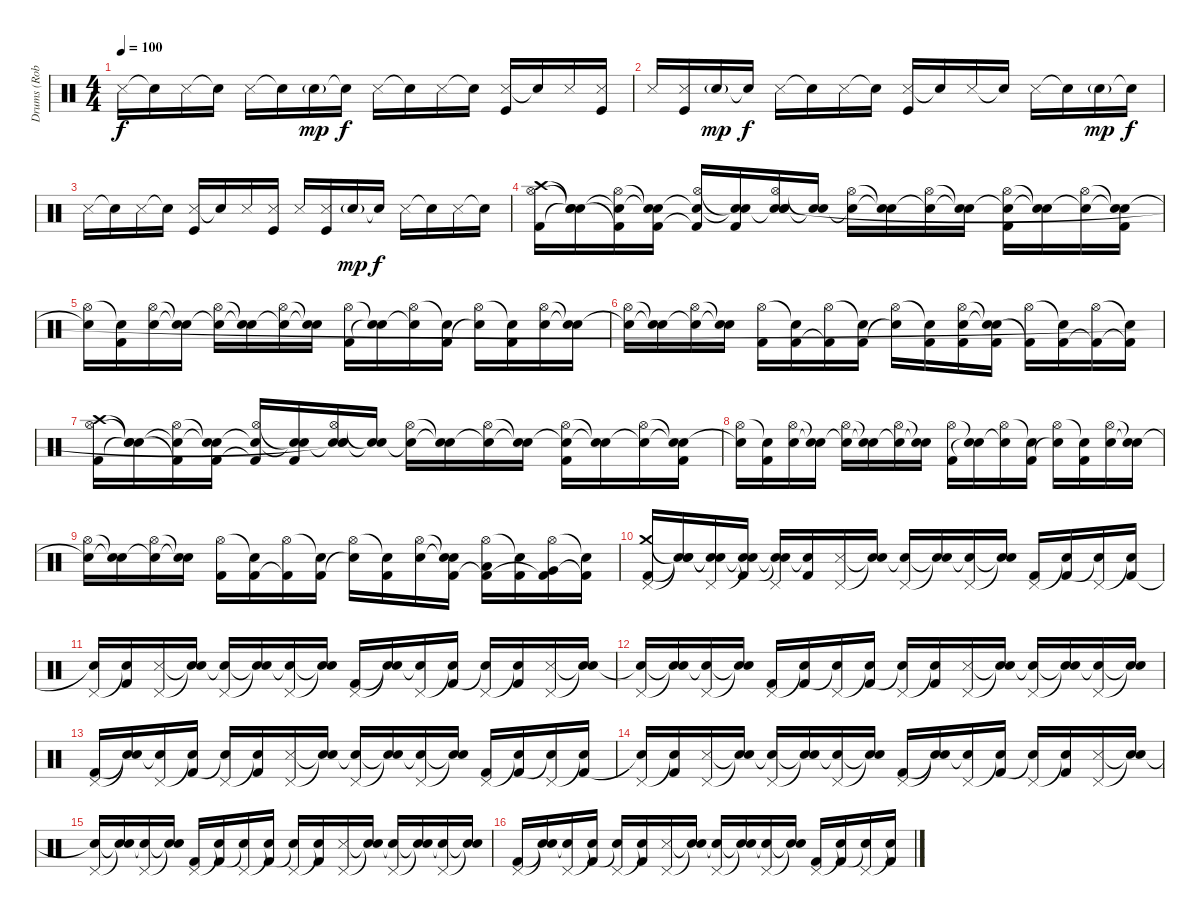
\track ("Drums (Rob Bourdon)" "Drums (Rob") {instrument percussion}
\staff {score}
\articulation defaults
\ts (4 4)
\tempo 100
\clef neutral
\ks c "Snare (side stick) 3".16{dy f volume 7} "Snare (hit)"{t}.16 "Snare (side stick) 3".16 "Snare (hit)"{t}.16 "Snare (side stick) 3".16 "Snare (hit)"{t}.16 "Metronome (bell)"{g}.16{dy mp volume 8} "Snare (hit)"{t}.16{dy f} "Snare (side stick) 3".16 "Snare (hit)"{t}.16 "Snare (side stick) 3".16 "Snare (hit)"{t}.16
("Snare (side stick) 3" "Kick (hit)").16{volume 9} "Snare (hit)"{t}.16 "Snare (side stick) 3".16 ("Snare (side stick) 3" "Kick (hit)").16 |
"Snare (side stick) 3".16 ("Snare (side stick) 3" "Kick (hit)").16{volume 10} "Metronome (bell)"{g}.16{dy mp} "Snare (hit)"{t}.16{dy f} "Snare (side stick) 3".16 "Snare (hit)"{t}.16 "Snare (side stick) 3".16{volume 11} "Snare (hit)"{t}.16 ("Snare (side stick) 3" "Kick (hit)").16 "Snare (hit)"{t}.16 "Snare (side stick) 3".16{volume 12} "Snare (hit)"{t}.16 "Snare (side stick) 3".16 "Snare (hit)"{t}.16 "Metronome (bell)"{g}.16{dy mp} "Snare (hit)"{t}.16{dy f} |
"Snare (side stick) 3".16 "Snare (hit)"{t}.16 "Snare (side stick) 3".16 "Snare (hit)"{t}.16 ("Snare (side stick) 3" "Kick (hit)").16 "Snare (hit)"{t}.16 "Snare (side stick) 3".16 ("Snare (side stick) 3" "Kick (hit)").16 "Snare (side stick) 3".16 ("Snare (side stick) 3" "Kick (hit)").16 "Metronome (bell)"{g}.16{dy mp} "Snare (hit)"{t}.16{dy f} "Snare (side stick) 3".16 "Snare (hit)"{t}.16 "Snare (side stick) 3".16 "Snare (hit)"{t}.16 |
("Crash high (hit)" "Hi-Hat (open)" "Kick (hit) 2").16{volume 13} ("Snare (hit)"{t} "Snare (hit)"{t} "Snare (hit)"{t}).16 ("Snare (hit)"{t} "Hi-Hat (open)" "Kick (hit) 2"{t}).16 ("Snare (hit)"{t} "Snare (hit)"{t} "Kick (hit) 2").16 ("Snare (hit)"{t} "Hi-Hat (open)" "Kick (hit) 2"{t}).16 ("Snare (hit)"{t} "Snare (hit)"{t} "Kick (hit) 2").16 ("Snare (hit)"{t} "Hi-Hat (open)" "Electric Snare (hit)" "Snare (hit)").16 ("Snare (hit)"{t} "Snare (hit)"{t}).16 ("Hi-Hat (open)" "Electric Snare (hit)"{t}).16 ("Snare (hit)"{t} "Snare (hit)"{t}).16 ("Hi-Hat (open)" "Snare (hit)"{t}).16 ("Snare (hit)"{t} "Snare (hit)"{t}).16 ("Hi-Hat (open)" "Snare (hit)"{t} "Kick (hit) 2").16 ("Snare (hit)"{t} "Snare (hit)"{t}).16 ("Hi-Hat (open)" "Snare (hit)"{t}).16 ("Snare (hit)"{t} "Snare (hit)"{t} "Kick (hit) 2").16 |
("Hi-Hat (open)" "Snare (hit)"{t}).16 ("Snare (hit)"{t} "Kick (hit) 2").16 ("Hi-Hat (open)" "Electric Snare (hit)").16 ("Snare (hit)"{t} "Snare (hit)"{t}).16 ("Hi-Hat (open)" "Snare (hit)"{t}).16 ("Snare (hit)"{t} "Snare (hit)"{t}).16 ("Hi-Hat (open)" "Snare (hit)"{t}).16 ("Snare (hit)"{t} "Snare (hit)"{t}).16 ("Hi-Hat (open)" "Kick (hit) 2").16 ("Snare (hit)"{t} "Snare (hit)"{t}).16 ("Hi-Hat (open)" "Snare (hit)"{t}).16 ("Snare (hit)"{t} "Kick (hit) 2").16 ("Hi-Hat (open)" "Snare (hit)"{t}).16 ("Snare (hit)"{t} "Kick (hit) 2").16 ("Hi-Hat (open)" "Electric Snare (hit)").16 ("Snare (hit)"{t} "Snare (hit)"{t}).16 |
("Hi-Hat (open)" "Snare (hit)"{t}).16 ("Snare (hit)"{t} "Snare (hit)"{t}).16 ("Hi-Hat (open)" "Snare (hit)"{t}).16 ("Snare (hit)"{t} "Snare (hit)"{t}).16 ("Hi-Hat (open)" "Kick (hit) 2").16 ("Snare (hit)"{t} "Kick (hit) 2").16 ("Hi-Hat (open)" "Kick (hit) 2"{t}).16 ("Snare (hit)"{t} "Kick (hit) 2").16 ("Hi-Hat (open)" "Snare (hit)"{t}).16 ("Snare (hit)"{t} "Kick (hit) 2").16 ("Hi-Hat (open)" "Electric Snare (hit)" "Kick (hit) 2").16 ("Snare (hit)"{t} "Snare (hit)"{t} "Kick (hit) 2").16 ("Hi-Hat (open)" "Kick (hit) 2"{t}).16 ("Snare (hit)"{t} "Kick (hit) 2").16 ("Hi-Hat (open)" "Kick (hit) 2"{t}).16 ("Snare (hit)"{t} "Kick (hit) 2"{t}).16 |
("Crash high (hit)" "Hi-Hat (open)" "Kick (hit) 2").16 ("Snare (hit)"{t} "Snare (hit)"{t} "Snare (hit)"{t}).16 ("Snare (hit)"{t} "Hi-Hat (open)" "Kick (hit) 2"{t}).16 ("Snare (hit)"{t} "Snare (hit)"{t} "Kick (hit) 2").16 ("Snare (hit)"{t} "Hi-Hat (open)" "Kick (hit) 2"{t}).16 ("Snare (hit)"{t} "Snare (hit)"{t} "Kick (hit) 2").16 ("Snare (hit)"{t} "Hi-Hat (open)" "Electric Snare (hit)" "Snare (hit)"{t}).16 ("Snare (hit)"{t} "Snare (hit)"{t}).16 ("Hi-Hat (open)" "Electric Snare (hit)"{t}).16 ("Snare (hit)"{t} "Snare (hit)"{t}).16 ("Hi-Hat (open)" "Snare (hit)"{t}).16 ("Snare (hit)"{t} "Snare (hit)"{t}).16 ("Hi-Hat (open)" "Snare (hit)"{t} "Kick (hit) 2").16 ("Snare (hit)"{t} "Snare (hit)"{t}).16 ("Hi-Hat (open)" "Snare (hit)"{t}).16 ("Snare (hit)"{t} "Snare (hit)"{t} "Kick (hit) 2").16 |
("Hi-Hat (open)" "Snare (hit)"{t}).16 ("Snare (hit)"{t} "Kick (hit) 2").16 ("Hi-Hat (open)" "Electric Snare (hit)").16 ("Snare (hit)"{t} "Snare (hit)"{t}).16 ("Hi-Hat (open)" "Snare (hit)"{t}).16 ("Snare (hit)"{t} "Snare (hit)"{t}).16 ("Hi-Hat (open)" "Snare (hit)"{t}).16 ("Snare (hit)"{t} "Snare (hit)"{t}).16 ("Hi-Hat (open)" "Kick (hit) 2").16 ("Snare (hit)"{t} "Snare (hit)"{t}).16 ("Hi-Hat (open)" "Snare (hit)"{t}).16 ("Snare (hit)"{t} "Kick (hit) 2").16 ("Hi-Hat (open)" "Snare (hit)"{t}).16 ("Snare (hit)"{t} "Kick (hit) 2").16 ("Hi-Hat (open)" "Electric Snare (hit)").16 ("Snare (hit)"{t} "Snare (hit)"{t}).16 |
("Hi-Hat (open)" "Snare (hit)"{t}).16 ("Snare (hit)"{t} "Snare (hit)"{t}).16 ("Hi-Hat (open)" "Snare (hit)"{t}).16 ("Snare (hit)"{t} "Snare (hit)"{t}).16 ("Hi-Hat (open)" "Kick (hit) 2").16 ("Snare (hit)"{t} "Kick (hit) 2").16 ("Hi-Hat (open)" "Kick (hit) 2"{t}).16 ("Snare (hit)"{t} "Kick (hit) 2").16 ("Hi-Hat (open)" "Snare (hit)"{t}).16 ("Snare (hit)"{t} "Kick (hit) 2").16 ("Hi-Hat (open)" "Electric Snare (hit)").16 ("Snare (hit)"{t} "Snare (hit)"{t} "Kick (hit) 2").16 ("Hi-Hat (open)" "Low Tom (hit)" "Kick (hit) 2"{t}).16 ("Snare (hit)"{t} "Kick (hit) 2").16 ("Hi-Hat (open)" "Very Low Tom (hit)" "Kick (hit) 2"{t}).16 ("Snare (hit)"{t} "Kick (hit) 2"{t}).16 |
("Crash medium (hit)" "Pedal Hi-Hat (hit)" "Kick (hit) 2").16 ("Snare (hit)"{t} "Snare (hit)"{t} "Snare (hit)"{t}).16 ("Snare (hit)"{t} "Pedal Hi-Hat (hit)" "Snare (hit)"{t}).16 ("Snare (hit)"{t} "Snare (hit)"{t} "Kick (hit) 2").16 ("Snare (hit)"{t} "Pedal Hi-Hat (hit)" "Snare (hit)"{t}).16 ("Snare (hit)"{t} "Kick (hit) 2").16 ("Pedal Hi-Hat (hit)" "Snare (side stick) 3").16 ("Snare (hit)"{t} "Snare (hit)"{t}).16 ("Pedal Hi-Hat (hit)" "Snare (hit)"{t}).16 ("Snare (hit)"{t} "Snare (hit)"{t}).16 ("Pedal Hi-Hat (hit)" "Snare (hit)"{t}).16 ("Snare (hit)"{t} "Snare (hit)"{t}).16 ("Pedal Hi-Hat (hit)" "Kick (hit) 2").16 ("Snare (hit)"{t} "Kick (hit) 2").16 ("Pedal Hi-Hat (hit)" "Snare (hit)"{t}).16 ("Snare (hit)"{t} "Kick (hit) 2").16 |
("Pedal Hi-Hat (hit)" "Snare (hit)"{t}).16 ("Snare (hit)"{t} "Kick (hit) 2").16 ("Pedal Hi-Hat (hit)" "Snare (side stick) 3").16 ("Snare (hit)"{t} "Snare (hit)"{t}).16 ("Pedal Hi-Hat (hit)" "Snare (hit)"{t}).16 ("Snare (hit)"{t} "Snare (hit)"{t}).16 ("Pedal Hi-Hat (hit)" "Snare (hit)"{t}).16 ("Snare (hit)"{t} "Snare (hit)"{t}).16 ("Pedal Hi-Hat (hit)" "Kick (hit) 2").16 ("Snare (hit)"{t} "Snare (hit)"{t}).16 ("Pedal Hi-Hat (hit)" "Snare (hit)"{t}).16 ("Snare (hit)"{t} "Kick (hit) 2").16 ("Pedal Hi-Hat (hit)" "Snare (hit)"{t}).16 ("Snare (hit)"{t} "Kick (hit) 2").16 ("Pedal Hi-Hat (hit)" "Snare (side stick) 3").16 ("Snare (hit)"{t} "Snare (hit)"{t}).16 |
("Pedal Hi-Hat (hit)" "Snare (hit)"{t}).16 ("Snare (hit)"{t} "Snare (hit)"{t}).16 ("Pedal Hi-Hat (hit)" "Snare (hit)"{t}).16 ("Snare (hit)"{t} "Snare (hit)"{t}).16 ("Pedal Hi-Hat (hit)" "Kick (hit) 2").16 ("Snare (hit)"{t} "Kick (hit) 2").16 ("Pedal Hi-Hat (hit)" "Snare (hit)"{t}).16 ("Snare (hit)"{t} "Kick (hit) 2").16 ("Pedal Hi-Hat (hit)" "Snare (hit)"{t}).16 ("Snare (hit)"{t} "Kick (hit) 2").16 ("Pedal Hi-Hat (hit)" "Snare (side stick) 3").16 ("Snare (hit)"{t} "Snare (hit)"{t}).16 ("Pedal Hi-Hat (hit)" "Snare (hit)"{t}).16 ("Snare (hit)"{t} "Snare (hit)"{t}).16 ("Pedal Hi-Hat (hit)" "Snare (hit)"{t}).16 ("Snare (hit)"{t} "Snare (hit)"{t}).16 |
("Pedal Hi-Hat (hit)" "Kick (hit) 2").16 ("Snare (hit)"{t} "Snare (hit)"{t}).16 ("Pedal Hi-Hat (hit)" "Snare (hit)"{t}).16 ("Snare (hit)"{t} "Kick (hit) 2").16 ("Pedal Hi-Hat (hit)" "Snare (hit)"{t}).16 ("Snare (hit)"{t} "Kick (hit) 2").16 ("Pedal Hi-Hat (hit)" "Snare (side stick) 3").16 ("Snare (hit)"{t} "Snare (hit)"{t}).16 ("Pedal Hi-Hat (hit)" "Snare (hit)"{t}).16 ("Snare (hit)"{t} "Snare (hit)"{t}).16 ("Pedal Hi-Hat (hit)" "Snare (hit)"{t}).16 ("Snare (hit)"{t} "Snare (hit)"{t}).16 ("Pedal Hi-Hat (hit)" "Kick (hit) 2").16 ("Snare (hit)"{t} "Kick (hit) 2").16 ("Pedal Hi-Hat (hit)" "Snare (hit)"{t}).16 ("Snare (hit)"{t} "Kick (hit) 2").16 |
("Pedal Hi-Hat (hit)" "Snare (hit)"{t}).16 ("Snare (hit)"{t} "Kick (hit) 2").16 ("Pedal Hi-Hat (hit)" "Snare (side stick) 3").16 ("Snare (hit)"{t} "Snare (hit)"{t}).16 ("Pedal Hi-Hat (hit)" "Snare (hit)"{t}).16 ("Snare (hit)"{t} "Snare (hit)"{t}).16 ("Pedal Hi-Hat (hit)" "Snare (hit)"{t}).16 ("Snare (hit)"{t} "Snare (hit)"{t}).16 ("Pedal Hi-Hat (hit)" "Kick (hit) 2").16 ("Snare (hit)"{t} "Snare (hit)"{t}).16 ("Pedal Hi-Hat (hit)" "Snare (hit)"{t}).16 ("Snare (hit)"{t} "Kick (hit) 2").16 ("Pedal Hi-Hat (hit)" "Snare (hit)"{t}).16 ("Snare (hit)"{t} "Kick (hit) 2").16 ("Pedal Hi-Hat (hit)" "Snare (side stick) 3").16 ("Snare (hit)"{t} "Snare (hit)"{t}).16 |
("Pedal Hi-Hat (hit)" "Snare (hit)"{t}).16 ("Snare (hit)"{t} "Snare (hit)"{t}).16 ("Pedal Hi-Hat (hit)" "Snare (hit)"{t}).16 ("Snare (hit)"{t} "Snare (hit)"{t}).16 ("Pedal Hi-Hat (hit)" "Kick (hit) 2").16 ("Snare (hit)"{t} "Kick (hit) 2").16 ("Pedal Hi-Hat (hit)" "Snare (hit)"{t}).16 ("Snare (hit)"{t} "Kick (hit) 2").16 ("Pedal Hi-Hat (hit)" "Snare (hit)"{t}).16 ("Snare (hit)"{t} "Kick (hit) 2").16 ("Pedal Hi-Hat (hit)" "Snare (side stick) 3").16 ("Snare (hit)"{t} "Snare (hit)"{t}).16 ("Pedal Hi-Hat (hit)" "Snare (hit)"{t}).16 ("Snare (hit)"{t} "Snare (hit)"{t}).16 ("Pedal Hi-Hat (hit)" "Snare (hit)"{t}).16 ("Snare (hit)"{t} "Snare (hit)"{t}).16 |
("Pedal Hi-Hat (hit)" "Kick (hit) 2").16 ("Snare (hit)"{t} "Snare (hit)"{t}).16 ("Pedal Hi-Hat (hit)" "Snare (hit)"{t}).16 ("Snare (hit)"{t} "Kick (hit) 2").16 ("Pedal Hi-Hat (hit)" "Snare (hit)"{t}).16 ("Snare (hit)"{t} "Kick (hit) 2").16 ("Pedal Hi-Hat (hit)" "Snare (side stick) 3").16 ("Snare (hit)"{t} "Snare (hit)"{t}).16 ("Pedal Hi-Hat (hit)" "Snare (hit)"{t}).16 ("Snare (hit)"{t} "Snare (hit)"{t}).16 ("Pedal Hi-Hat (hit)" "Snare (hit)"{t}).16 ("Snare (hit)"{t} "Snare (hit)"{t}).16 ("Pedal Hi-Hat (hit)" "Kick (hit) 2").16 ("Snare (hit)"{t} "Kick (hit) 2").16 ("Pedal Hi-Hat (hit)" "Snare (hit)"{t}).16 ("Snare (hit)"{t} "Kick (hit) 2").16
